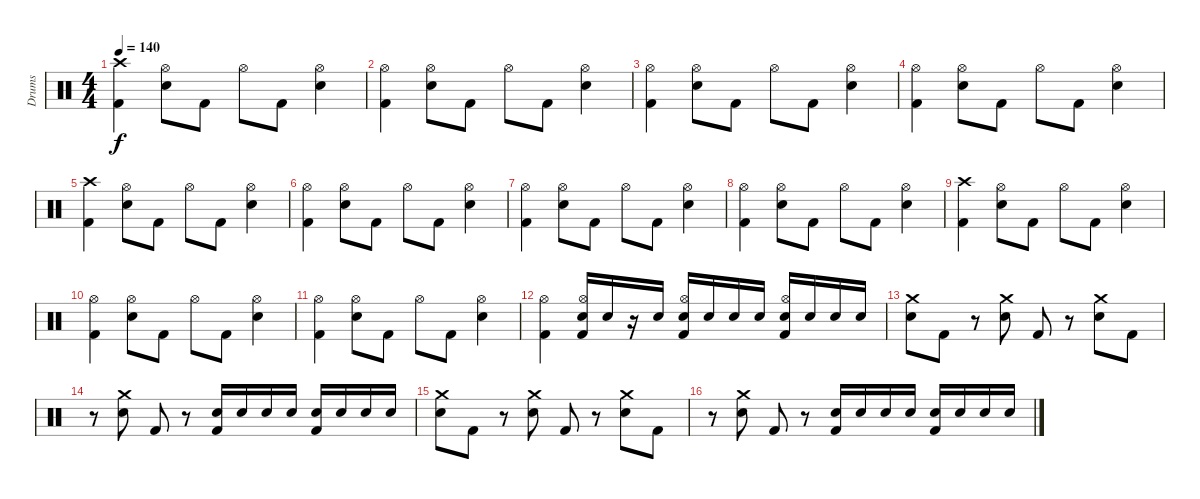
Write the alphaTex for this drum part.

\track ("Drums" "Drums") {instrument percussion}
\staff {score}
\articulation defaults
\ts (4 4)
\tempo 140
\clef neutral
\ks c
("Crash high (hit)" "Kick (hit) 2").4{dy f} ("Hi-Hat (open)" "Snare (hit) 2").8 "Kick (hit) 2".8 "Hi-Hat (open)".8 "Kick (hit) 2".8 ("Hi-Hat (open)" "Snare (hit) 2").4 |
("Hi-Hat (open)" "Kick (hit) 2").4 ("Hi-Hat (open)" "Snare (hit) 2").8 "Kick (hit) 2".8 "Hi-Hat (open)".8 "Kick (hit) 2".8 ("Hi-Hat (open)" "Snare (hit) 2").4 |
("Hi-Hat (open)" "Kick (hit) 2").4 ("Hi-Hat (open)" "Snare (hit) 2").8 "Kick (hit) 2".8 "Hi-Hat (open)".8 "Kick (hit) 2".8 ("Hi-Hat (open)" "Snare (hit) 2").4 |
("Hi-Hat (open)" "Kick (hit) 2").4 ("Hi-Hat (open)" "Snare (hit) 2").8 "Kick (hit) 2".8 "Hi-Hat (open)".8 "Kick (hit) 2".8 ("Hi-Hat (open)" "Snare (hit) 2").4 |
("Crash high (hit)" "Kick (hit) 2").4 ("Hi-Hat (open)" "Snare (hit) 2").8 "Kick (hit) 2".8 "Hi-Hat (open)".8 "Kick (hit) 2".8 ("Hi-Hat (open)" "Snare (hit) 2").4 |
("Hi-Hat (open)" "Kick (hit) 2").4 ("Hi-Hat (open)" "Snare (hit) 2").8 "Kick (hit) 2".8 "Hi-Hat (open)".8 "Kick (hit) 2".8 ("Hi-Hat (open)" "Snare (hit) 2").4 |
("Hi-Hat (open)" "Kick (hit) 2").4 ("Hi-Hat (open)" "Snare (hit) 2").8 "Kick (hit) 2".8 "Hi-Hat (open)".8 "Kick (hit) 2".8 ("Hi-Hat (open)" "Snare (hit) 2").4 |
("Hi-Hat (open)" "Kick (hit) 2").4 ("Hi-Hat (open)" "Snare (hit) 2").8 "Kick (hit) 2".8 "Hi-Hat (open)".8 "Kick (hit) 2".8 ("Hi-Hat (open)" "Snare (hit) 2").4 |
("Crash high (hit)" "Kick (hit) 2").4 ("Hi-Hat (open)" "Snare (hit) 2").8 "Kick (hit) 2".8 "Hi-Hat (open)".8 "Kick (hit) 2".8 ("Hi-Hat (open)" "Snare (hit) 2").4 |
("Hi-Hat (open)" "Kick (hit) 2").4 ("Hi-Hat (open)" "Snare (hit) 2").8 "Kick (hit) 2".8 "Hi-Hat (open)".8 "Kick (hit) 2".8 ("Hi-Hat (open)" "Snare (hit) 2").4 |
("Hi-Hat (open)" "Kick (hit) 2").4 ("Hi-Hat (open)" "Snare (hit) 2").8 "Kick (hit) 2".8 "Hi-Hat (open)".8 "Kick (hit) 2".8 ("Hi-Hat (open)" "Snare (hit) 2").4 |
("Hi-Hat (open)" "Kick (hit) 2").4 ("Hi-Hat (open)" "Snare (hit) 2" "Kick (hit) 2").16 "Snare (hit) 2".16 r.16 "Snare (hit) 2".16 ("Hi-Hat (open)" "Snare (hit) 2" "Kick (hit) 2").16 "Snare (hit) 2".16 "Snare (hit) 2".16 "Snare (hit) 2".16 ("Hi-Hat (open)" "Snare (hit) 2" "Kick (hit) 2").16 "Snare (hit) 2".16 "Snare (hit) 2".16 "Snare (hit) 2".16 |
("Crash medium (hit)" "Snare (hit) 2").8 "Kick (hit) 2".8 r.8 ("Crash medium (hit)" "Snare (hit) 2").8 "Kick (hit) 2".8 r.8 ("Crash medium (hit)" "Snare (hit) 2").8 "Kick (hit) 2".8 |
r.8 ("Crash medium (hit)" "Snare (hit) 2").8 "Kick (hit) 2".8 r.8 ("Snare (hit) 2" "Kick (hit) 2").16 "Snare (hit) 2".16 "Snare (hit) 2".16 "Snare (hit) 2".16 ("Snare (hit) 2" "Kick (hit) 2").16 "Snare (hit) 2".16 "Snare (hit) 2".16 "Snare (hit) 2".16 |
("Crash medium (hit)" "Snare (hit) 2").8 "Kick (hit) 2".8 r.8 ("Crash medium (hit)" "Snare (hit) 2").8 "Kick (hit) 2".8 r.8 ("Crash medium (hit)" "Snare (hit) 2").8 "Kick (hit) 2".8 |
r.8 ("Crash medium (hit)" "Snare (hit) 2").8 "Kick (hit) 2".8 r.8 ("Snare (hit) 2" "Kick (hit) 2").16 "Snare (hit) 2".16 "Snare (hit) 2".16 "Snare (hit) 2".16 ("Snare (hit) 2" "Kick (hit) 2").16 "Snare (hit) 2".16 "Snare (hit) 2".16 "Snare (hit) 2".16
